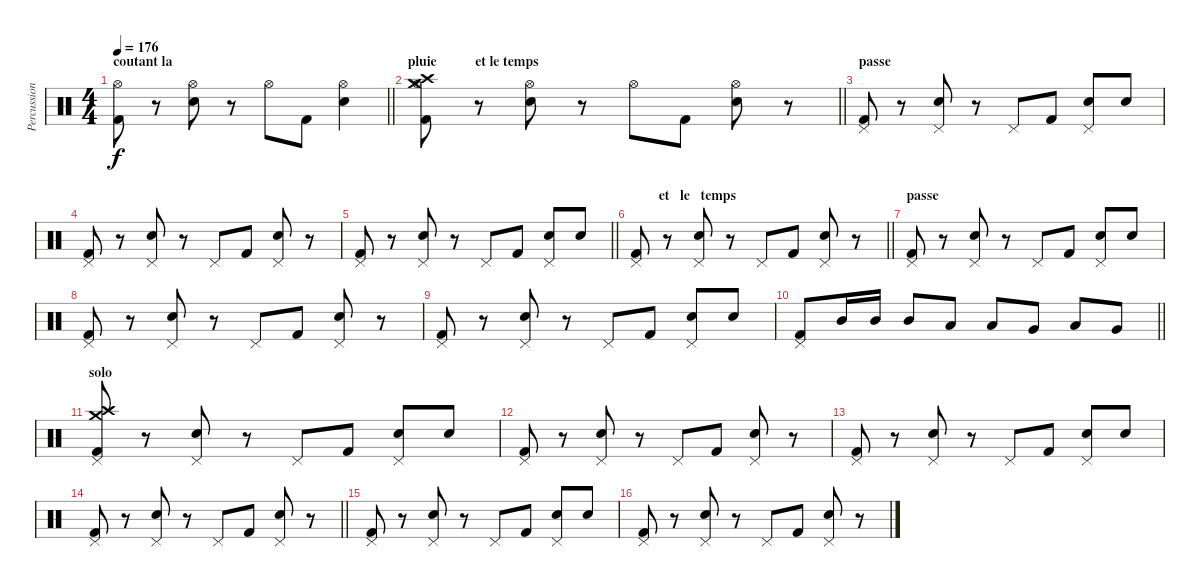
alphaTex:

\track ("Percussions" "Percussion") {instrument percussion}
\staff {score}
\articulation defaults
\ts (4 4)
\section ("" "coutant la ")
\tempo 176
\clef neutral
\barLineRight lightlight
\ks c
("Hi-Hat (open)" "Kick (hit) 2").8{dy f} r.8 ("Hi-Hat (open)" "Snare (hit) 2").8 r.8 "Hi-Hat (open)".8 "Kick (hit) 2".8 ("Hi-Hat (open)" "Snare (hit) 2").4 |
\section ("" "pluie           et le temps")
\barLineRight lightlight
("Hi-Hat (open)" "Kick (hit) 2" "Crash medium (hit)" "Crash high (hit)").8 r.8 ("Hi-Hat (open)" "Snare (hit) 2").8 r.8 "Hi-Hat (open)".8 "Kick (hit) 2".8 ("Hi-Hat (open)" "Snare (hit) 2").8 r.8 |
\section ("" "passe")
("Pedal Hi-Hat (hit)" "Kick (hit) 2").8 r.8 ("Pedal Hi-Hat (hit)" "Snare (hit) 2").8 r.8 "Pedal Hi-Hat (hit)".8 "Kick (hit) 2".8 ("Pedal Hi-Hat (hit)" "Snare (hit) 2").8 "Snare (hit) 2".8 |
("Pedal Hi-Hat (hit)" "Kick (hit) 2").8 r.8 ("Pedal Hi-Hat (hit)" "Snare (hit) 2").8 r.8 "Pedal Hi-Hat (hit)".8 "Kick (hit) 2".8 ("Pedal Hi-Hat (hit)" "Snare (hit) 2").8 r.8 |
\barLineRight lightlight
("Pedal Hi-Hat (hit)" "Kick (hit) 2").8 r.8 ("Pedal Hi-Hat (hit)" "Snare (hit) 2").8 r.8 "Pedal Hi-Hat (hit)".8 "Kick (hit) 2".8 ("Pedal Hi-Hat (hit)" "Snare (hit) 2").8 "Snare (hit) 2".8 |
\section ("" "        et   le   temps")
\barLineRight lightlight
("Pedal Hi-Hat (hit)" "Kick (hit) 2").8 r.8 ("Pedal Hi-Hat (hit)" "Snare (hit) 2").8 r.8 "Pedal Hi-Hat (hit)".8 "Kick (hit) 2".8 ("Pedal Hi-Hat (hit)" "Snare (hit) 2").8 r.8 |
\section ("" "passe")
("Pedal Hi-Hat (hit)" "Kick (hit) 2").8 r.8 ("Pedal Hi-Hat (hit)" "Snare (hit) 2").8 r.8 "Pedal Hi-Hat (hit)".8 "Kick (hit) 2".8 ("Pedal Hi-Hat (hit)" "Snare (hit) 2").8 "Snare (hit) 2".8 |
("Pedal Hi-Hat (hit)" "Kick (hit) 2").8 r.8 ("Pedal Hi-Hat (hit)" "Snare (hit) 2").8 r.8 "Pedal Hi-Hat (hit)".8 "Kick (hit) 2".8 ("Pedal Hi-Hat (hit)" "Snare (hit) 2").8 r.8 |
("Pedal Hi-Hat (hit)" "Kick (hit) 2").8 r.8 ("Pedal Hi-Hat (hit)" "Snare (hit) 2").8 r.8 "Pedal Hi-Hat (hit)".8 "Kick (hit) 2".8 ("Pedal Hi-Hat (hit)" "Snare (hit) 2").8 "Snare (hit) 2".8 |
\barLineRight lightlight
("Pedal Hi-Hat (hit)" "Kick (hit) 2").8 "Mid Tom (hit)".16 "Mid Tom (hit)".16 "Mid Tom (hit)".8 "Low Tom (hit)".8 "Low Tom (hit)".8 "Very Low Tom (hit)".8 "Low Tom (hit)".8 "Very Low Tom (hit)".8 |
\section ("" "solo")
("Pedal Hi-Hat (hit)" "Kick (hit) 2" "Crash medium (hit)" "Crash high (hit)").8 r.8 ("Pedal Hi-Hat (hit)" "Snare (hit) 2").8 r.8 "Pedal Hi-Hat (hit)".8 "Kick (hit) 2".8 ("Pedal Hi-Hat (hit)" "Snare (hit) 2").8 "Snare (hit) 2".8 |
("Pedal Hi-Hat (hit)" "Kick (hit) 2").8 r.8 ("Pedal Hi-Hat (hit)" "Snare (hit) 2").8 r.8 "Pedal Hi-Hat (hit)".8 "Kick (hit) 2".8 ("Pedal Hi-Hat (hit)" "Snare (hit) 2").8 r.8 |
("Pedal Hi-Hat (hit)" "Kick (hit) 2").8 r.8 ("Pedal Hi-Hat (hit)" "Snare (hit) 2").8 r.8 "Pedal Hi-Hat (hit)".8 "Kick (hit) 2".8 ("Pedal Hi-Hat (hit)" "Snare (hit) 2").8 "Snare (hit) 2".8 |
\barLineRight lightlight
("Pedal Hi-Hat (hit)" "Kick (hit) 2").8 r.8 ("Pedal Hi-Hat (hit)" "Snare (hit) 2").8 r.8 "Pedal Hi-Hat (hit)".8 "Kick (hit) 2".8 ("Pedal Hi-Hat (hit)" "Snare (hit) 2").8 r.8 |
("Pedal Hi-Hat (hit)" "Kick (hit) 2").8 r.8 ("Pedal Hi-Hat (hit)" "Snare (hit) 2").8 r.8 "Pedal Hi-Hat (hit)".8 "Kick (hit) 2".8 ("Pedal Hi-Hat (hit)" "Snare (hit) 2").8 "Snare (hit) 2".8 |
("Pedal Hi-Hat (hit)" "Kick (hit) 2").8 r.8 ("Pedal Hi-Hat (hit)" "Snare (hit) 2").8 r.8 "Pedal Hi-Hat (hit)".8 "Kick (hit) 2".8 ("Pedal Hi-Hat (hit)" "Snare (hit) 2").8 r.8
